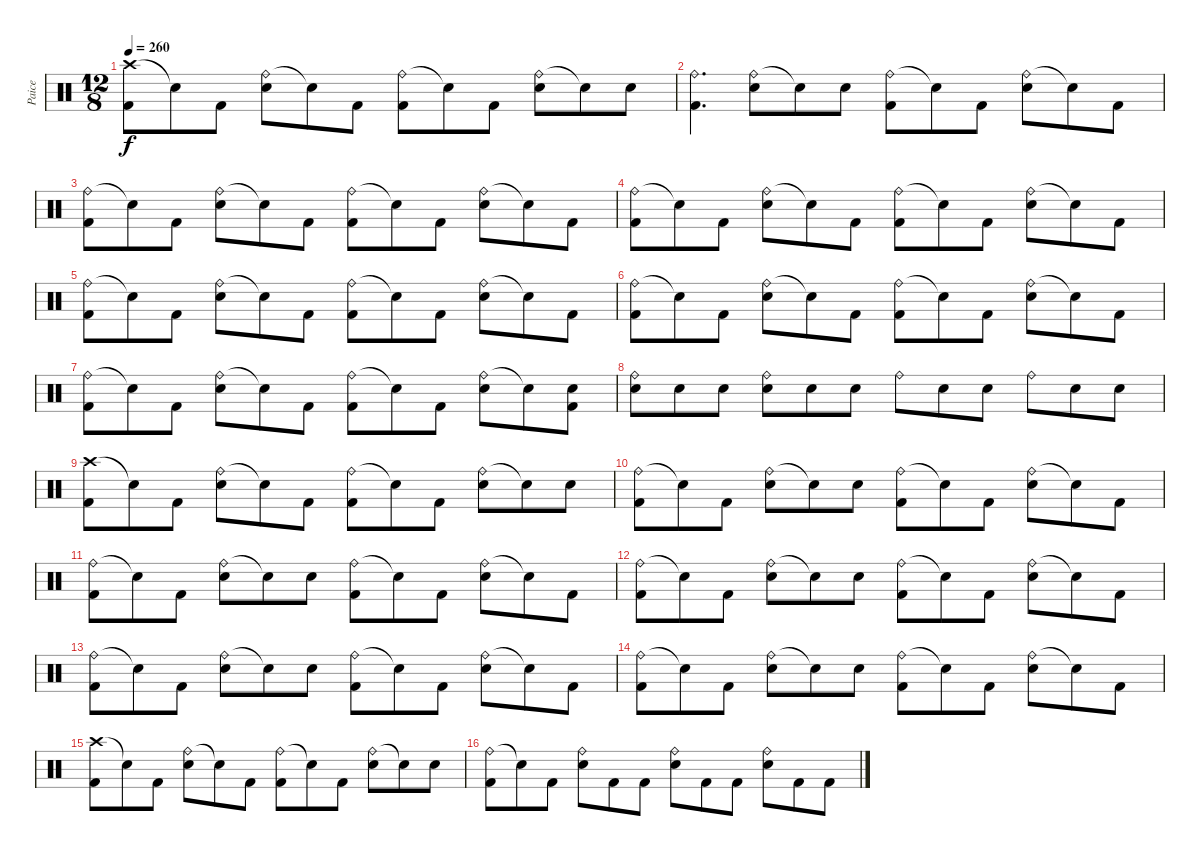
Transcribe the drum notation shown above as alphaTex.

\track ("Paice" "Paice") {instrument percussion}
\staff {score}
\articulation defaults
\ts (12 8)
\tempo 260
\clef neutral
\ks c
("Crash high (hit)" "Kick (hit) 2").8{dy f} "Snare (hit)"{t}.8 "Kick (hit) 2".8 ("Ride (bell)" "Electric Snare (hit)").8 "Snare (hit)"{t}.8 "Kick (hit) 2".8 ("Ride (bell)" "Kick (hit) 2").8 "Snare (hit)"{t}.8 "Kick (hit) 2".8 ("Ride (bell)" "Electric Snare (hit)").8 "Snare (hit)"{t}.8 "Electric Snare (hit)".8 |
("Ride (bell)" "Kick (hit) 2").4{d} ("Ride (bell)" "Electric Snare (hit)").8 "Snare (hit)"{t}.8 "Electric Snare (hit)".8 ("Ride (bell)" "Kick (hit) 2").8 "Snare (hit)"{t}.8 "Kick (hit) 2".8 ("Ride (bell)" "Electric Snare (hit)").8 "Snare (hit)"{t}.8 "Kick (hit) 2".8 |
("Ride (bell)" "Kick (hit) 2").8 "Snare (hit)"{t}.8 "Kick (hit) 2".8 ("Ride (bell)" "Electric Snare (hit)").8 "Snare (hit)"{t}.8 "Kick (hit) 2".8 ("Ride (bell)" "Kick (hit) 2").8 "Snare (hit)"{t}.8 "Kick (hit) 2".8 ("Ride (bell)" "Electric Snare (hit)").8 "Snare (hit)"{t}.8 "Kick (hit) 2".8 |
("Ride (bell)" "Kick (hit) 2").8 "Snare (hit)"{t}.8 "Kick (hit) 2".8 ("Ride (bell)" "Electric Snare (hit)").8 "Snare (hit)"{t}.8 "Kick (hit) 2".8 ("Ride (bell)" "Kick (hit) 2").8 "Snare (hit)"{t}.8 "Kick (hit) 2".8 ("Ride (bell)" "Electric Snare (hit)").8 "Snare (hit)"{t}.8 "Kick (hit) 2".8 |
("Ride (bell)" "Kick (hit) 2").8 "Snare (hit)"{t}.8 "Kick (hit) 2".8 ("Ride (bell)" "Electric Snare (hit)").8 "Snare (hit)"{t}.8 "Kick (hit) 2".8 ("Ride (bell)" "Kick (hit) 2").8 "Snare (hit)"{t}.8 "Kick (hit) 2".8 ("Ride (bell)" "Electric Snare (hit)").8 "Snare (hit)"{t}.8 "Kick (hit) 2".8 |
("Ride (bell)" "Kick (hit) 2").8 "Snare (hit)"{t}.8 "Kick (hit) 2".8 ("Ride (bell)" "Electric Snare (hit)").8 "Snare (hit)"{t}.8 "Kick (hit) 2".8 ("Ride (bell)" "Kick (hit) 2").8 "Snare (hit)"{t}.8 "Kick (hit) 2".8 ("Ride (bell)" "Electric Snare (hit)").8 "Snare (hit)"{t}.8 "Kick (hit) 2".8 |
("Ride (bell)" "Kick (hit) 2").8 "Snare (hit)"{t}.8 "Kick (hit) 2".8 ("Ride (bell)" "Electric Snare (hit)").8 "Snare (hit)"{t}.8 "Kick (hit) 2".8 ("Ride (bell)" "Kick (hit) 2").8 "Snare (hit)"{t}.8 "Kick (hit) 2".8 ("Ride (bell)" "Electric Snare (hit)").8 "Snare (hit)"{t}.8 ("Electric Snare (hit)" "Kick (hit) 2").8 |
("Ride (bell)" "Electric Snare (hit)").8 "Electric Snare (hit)".8 "Electric Snare (hit)".8 ("Ride (bell)" "Electric Snare (hit)").8 "Electric Snare (hit)".8 "Electric Snare (hit)".8 "Ride (bell)".8 "Electric Snare (hit)".8 "Electric Snare (hit)".8 "Ride (bell)".8 "Electric Snare (hit)".8 "Electric Snare (hit)".8 |
("Crash high (hit)" "Kick (hit) 2").8 "Snare (hit)"{t}.8 "Kick (hit) 2".8 ("Ride (bell)" "Electric Snare (hit)").8 "Snare (hit)"{t}.8 "Kick (hit) 2".8 ("Ride (bell)" "Kick (hit) 2").8 "Snare (hit)"{t}.8 "Kick (hit) 2".8 ("Ride (bell)" "Electric Snare (hit)").8 "Snare (hit)"{t}.8 "Electric Snare (hit)".8 |
("Ride (bell)" "Kick (hit) 2").8 "Snare (hit)"{t}.8 "Kick (hit) 2".8 ("Ride (bell)" "Electric Snare (hit)").8 "Snare (hit)"{t}.8 "Electric Snare (hit)".8 ("Ride (bell)" "Kick (hit) 2").8 "Snare (hit)"{t}.8 "Kick (hit) 2".8 ("Ride (bell)" "Electric Snare (hit)").8 "Snare (hit)"{t}.8 "Kick (hit) 2".8 |
("Ride (bell)" "Kick (hit) 2").8 "Snare (hit)"{t}.8 "Kick (hit) 2".8 ("Ride (bell)" "Electric Snare (hit)").8 "Snare (hit)"{t}.8 "Electric Snare (hit)".8 ("Ride (bell)" "Kick (hit) 2").8 "Snare (hit)"{t}.8 "Kick (hit) 2".8 ("Ride (bell)" "Electric Snare (hit)").8 "Snare (hit)"{t}.8 "Kick (hit) 2".8 |
("Ride (bell)" "Kick (hit) 2").8 "Snare (hit)"{t}.8 "Kick (hit) 2".8 ("Ride (bell)" "Electric Snare (hit)").8 "Snare (hit)"{t}.8 "Electric Snare (hit)".8 ("Ride (bell)" "Kick (hit) 2").8 "Snare (hit)"{t}.8 "Kick (hit) 2".8 ("Ride (bell)" "Electric Snare (hit)").8 "Snare (hit)"{t}.8 "Kick (hit) 2".8 |
("Ride (bell)" "Kick (hit) 2").8 "Snare (hit)"{t}.8 "Kick (hit) 2".8 ("Ride (bell)" "Electric Snare (hit)").8 "Snare (hit)"{t}.8 "Electric Snare (hit)".8 ("Ride (bell)" "Kick (hit) 2").8 "Snare (hit)"{t}.8 "Kick (hit) 2".8 ("Ride (bell)" "Electric Snare (hit)").8 "Snare (hit)"{t}.8 "Kick (hit) 2".8 |
("Ride (bell)" "Kick (hit) 2").8 "Snare (hit)"{t}.8 "Kick (hit) 2".8 ("Ride (bell)" "Electric Snare (hit)").8 "Snare (hit)"{t}.8 "Electric Snare (hit)".8 ("Ride (bell)" "Kick (hit) 2").8 "Snare (hit)"{t}.8 "Kick (hit) 2".8 ("Ride (bell)" "Electric Snare (hit)").8 "Snare (hit)"{t}.8 "Kick (hit) 2".8 |
("Crash high (hit)" "Kick (hit) 2").8 "Snare (hit)"{t}.8 "Kick (hit) 2".8 ("Ride (bell)" "Electric Snare (hit)").8 "Snare (hit)"{t}.8 "Kick (hit) 2".8 ("Ride (bell)" "Kick (hit) 2").8 "Snare (hit)"{t}.8 "Kick (hit) 2".8 ("Ride (bell)" "Electric Snare (hit)").8 "Snare (hit)"{t}.8 "Electric Snare (hit)".8 |
("Ride (bell)" "Kick (hit) 2").8 "Snare (hit)"{t}.8 "Kick (hit) 2".8 ("Ride (bell)" "Electric Snare (hit)").8 "Kick (hit) 2".8 "Kick (hit) 2".8 ("Ride (bell)" "Electric Snare (hit)").8 "Kick (hit) 2".8 "Kick (hit) 2".8 ("Ride (bell)" "Electric Snare (hit)").8 "Kick (hit) 2".8 "Kick (hit) 2".8
